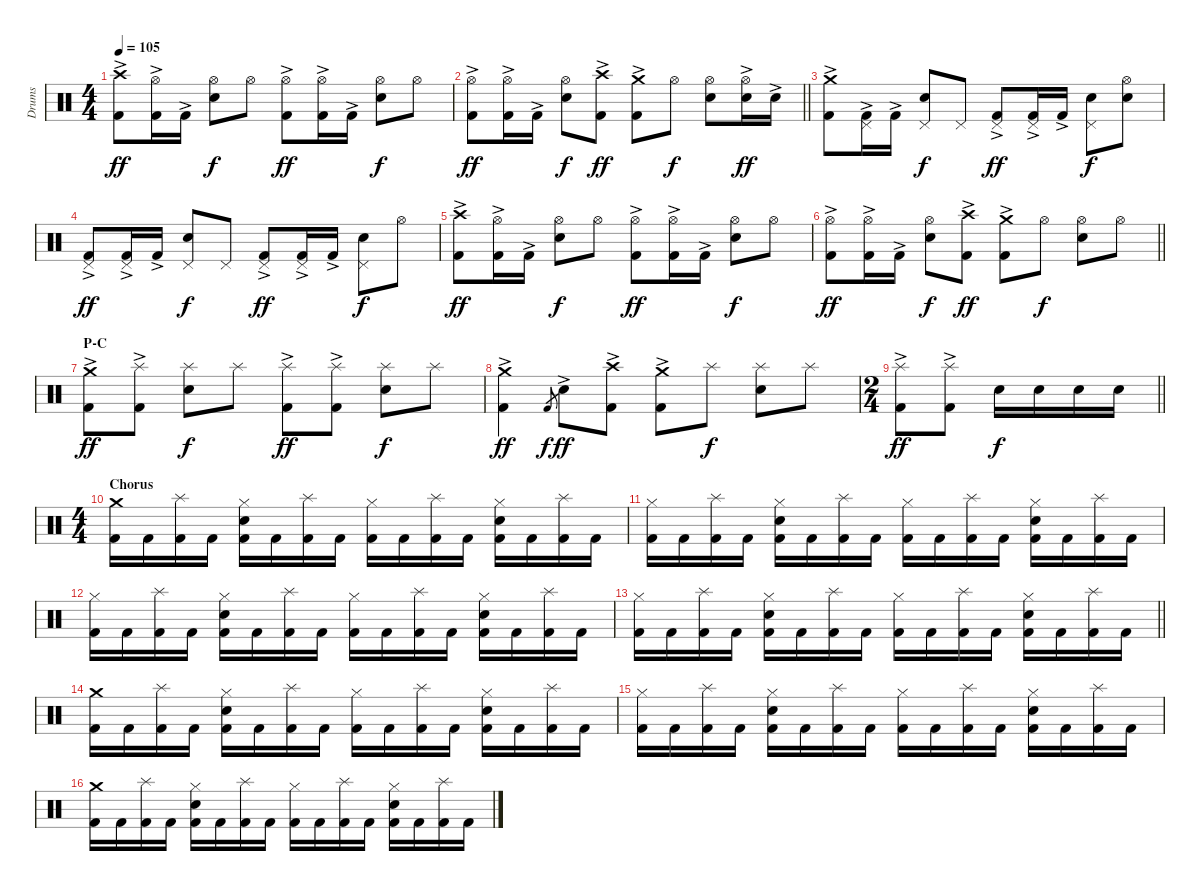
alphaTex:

\track ("Drums" "Drums") {instrument percussion}
\staff {score}
\articulation defaults
\ts (4 4)
\tempo 105
\clef neutral
\ks c
("Kick (hit) 2"{ac} "Crash high (hit)").8{dy ff} ("Kick (hit) 2"{ac} "Hi-Hat (open)").16 "Kick (hit) 2"{ac}.16 ("Snare (hit) 2" "Hi-Hat (open)").8{dy f} "Hi-Hat (open)".8 ("Kick (hit) 2"{ac} "Hi-Hat (open)").8{dy ff} ("Kick (hit) 2"{ac} "Hi-Hat (open)").16 "Kick (hit) 2"{ac}.16 ("Snare (hit) 2" "Hi-Hat (open)").8{dy f} "Hi-Hat (open)".8 |
\barLineRight lightlight
("Kick (hit) 2"{ac} "Hi-Hat (open)").8{dy ff} ("Kick (hit) 2"{ac} "Hi-Hat (open)").16 "Kick (hit) 2"{ac}.16 ("Snare (hit) 2" "Hi-Hat (open)").8{dy f} ("Kick (hit) 2"{ac} "Crash high (hit)").8{dy ff} ("Kick (hit) 2"{ac} "Crash medium (hit)").8 "Hi-Hat (open)".8{dy f} ("Snare (hit) 2" "Hi-Hat (open)").8 ("Snare (hit) 2"{ac} "Hi-Hat (open)").16{dy ff} "Snare (hit) 2"{ac}.16 |
\section ("" "")
("Kick (hit) 2"{ac} "Crash medium (hit)").8 ("Kick (hit) 2"{ac} "Pedal Hi-Hat (hit)").16 "Kick (hit) 2"{ac}.16 ("Snare (hit) 2" "Pedal Hi-Hat (hit)").8{dy f} "Pedal Hi-Hat (hit)".8 ("Kick (hit) 2"{ac} "Pedal Hi-Hat (hit)").8{dy ff} ("Kick (hit) 2"{ac} "Pedal Hi-Hat (hit)").16 "Kick (hit) 2"{ac}.16 ("Snare (hit) 2" "Pedal Hi-Hat (hit)").8{dy f} ("Snare (hit) 2" "Hi-Hat (open)").8 |
("Kick (hit) 2"{ac} "Pedal Hi-Hat (hit)").8{dy ff} ("Kick (hit) 2"{ac} "Pedal Hi-Hat (hit)").16 "Kick (hit) 2"{ac}.16 ("Snare (hit) 2" "Pedal Hi-Hat (hit)").8{dy f} "Pedal Hi-Hat (hit)".8 ("Kick (hit) 2"{ac} "Pedal Hi-Hat (hit)").8{dy ff} ("Kick (hit) 2"{ac} "Pedal Hi-Hat (hit)").16 "Kick (hit) 2"{ac}.16 ("Snare (hit) 2" "Pedal Hi-Hat (hit)").8{dy f} "Hi-Hat (open)".8 |
("Kick (hit) 2"{ac} "Crash high (hit)").8{dy ff} ("Kick (hit) 2"{ac} "Hi-Hat (open)").16 "Kick (hit) 2"{ac}.16 ("Snare (hit) 2" "Hi-Hat (open)").8{dy f} "Hi-Hat (open)".8 ("Kick (hit) 2"{ac} "Hi-Hat (open)").8{dy ff} ("Kick (hit) 2"{ac} "Hi-Hat (open)").16 "Kick (hit) 2"{ac}.16 ("Snare (hit) 2" "Hi-Hat (open)").8{dy f} "Hi-Hat (open)".8 |
\barLineRight lightlight
("Kick (hit) 2"{ac} "Hi-Hat (open)").8{dy ff} ("Kick (hit) 2"{ac} "Hi-Hat (open)").16 "Kick (hit) 2"{ac}.16 ("Snare (hit) 2" "Hi-Hat (open)").8{dy f} ("Kick (hit) 2"{ac} "Crash high (hit)").8{dy ff} ("Kick (hit) 2"{ac} "Crash medium (hit)").8 "Hi-Hat (open)".8{dy f} ("Snare (hit) 2" "Hi-Hat (open)").8 "Hi-Hat (open)".8 |
\section ("" "P-C")
("Kick (hit) 2"{ac} "Crash medium (hit)").8{dy ff} ("Kick (hit) 2"{ac} "Splash (hit)").8 ("Snare (hit) 2" "Splash (hit)").8{dy f} "Splash (hit)".8 ("Kick (hit) 2"{ac} "Splash (hit)").8{dy ff} ("Kick (hit) 2"{ac} "Splash (hit)").8 ("Snare (hit) 2" "Splash (hit)").8{dy f} "Splash (hit)".8 |
("Kick (hit) 2"{ac} "Crash medium (hit)").4{dy ff} "Kick (hit) 2".8{gr dy f} "Snare (hit) 2"{ac}.8{dy ff} ("Kick (hit) 2"{ac} "Crash high (hit)").8 ("Kick (hit) 2"{ac} "Crash medium (hit)").8 "Splash (hit)".8{dy f} ("Snare (hit) 2" "Splash (hit)").8 "Splash (hit)".8 |
\ts (2 4)
\barLineRight lightlight
("Kick (hit) 2"{ac} "Splash (hit)").8{dy ff} ("Kick (hit) 2"{ac} "Splash (hit)").8 "Snare (hit) 2".16{dy f} "Snare (hit) 2".16 "Snare (hit) 2".16 "Snare (hit) 2".16 |
\ts (4 4)
\section ("" "Chorus")
("Kick (hit) 2" "Crash medium (hit)").16 "Kick (hit) 2".16 ("Kick (hit) 2" "Splash (hit)").16 "Kick (hit) 2".16 ("Kick (hit) 2" "Snare (hit) 2" "Hi-Hat (closed)").16 "Kick (hit) 2".16 ("Kick (hit) 2" "Splash (hit)").16 "Kick (hit) 2".16 ("Kick (hit) 2" "Hi-Hat (closed)").16 "Kick (hit) 2".16 ("Kick (hit) 2" "Splash (hit)").16 "Kick (hit) 2".16 ("Kick (hit) 2" "Snare (hit) 2" "Hi-Hat (closed)").16 "Kick (hit) 2".16 ("Kick (hit) 2" "Splash (hit)").16 "Kick (hit) 2".16 |
("Kick (hit) 2" "Hi-Hat (closed)").16 "Kick (hit) 2".16 ("Kick (hit) 2" "Splash (hit)").16 "Kick (hit) 2".16 ("Kick (hit) 2" "Snare (hit) 2" "Hi-Hat (closed)").16 "Kick (hit) 2".16 ("Kick (hit) 2" "Splash (hit)").16 "Kick (hit) 2".16 ("Kick (hit) 2" "Hi-Hat (closed)").16 "Kick (hit) 2".16 ("Kick (hit) 2" "Splash (hit)").16 "Kick (hit) 2".16 ("Kick (hit) 2" "Snare (hit) 2" "Hi-Hat (closed)").16 "Kick (hit) 2".16 ("Kick (hit) 2" "Splash (hit)").16 "Kick (hit) 2".16 |
("Kick (hit) 2" "Hi-Hat (closed)").16 "Kick (hit) 2".16 ("Kick (hit) 2" "Splash (hit)").16 "Kick (hit) 2".16 ("Kick (hit) 2" "Snare (hit) 2" "Hi-Hat (closed)").16 "Kick (hit) 2".16 ("Kick (hit) 2" "Splash (hit)").16 "Kick (hit) 2".16 ("Kick (hit) 2" "Hi-Hat (closed)").16 "Kick (hit) 2".16 ("Kick (hit) 2" "Splash (hit)").16 "Kick (hit) 2".16 ("Kick (hit) 2" "Snare (hit) 2" "Hi-Hat (closed)").16 "Kick (hit) 2".16 ("Kick (hit) 2" "Splash (hit)").16 "Kick (hit) 2".16 |
\barLineRight lightlight
("Kick (hit) 2" "Hi-Hat (closed)").16 "Kick (hit) 2".16 ("Kick (hit) 2" "Splash (hit)").16 "Kick (hit) 2".16 ("Kick (hit) 2" "Snare (hit) 2" "Hi-Hat (closed)").16 "Kick (hit) 2".16 ("Kick (hit) 2" "Splash (hit)").16 "Kick (hit) 2".16 ("Kick (hit) 2" "Hi-Hat (closed)").16 "Kick (hit) 2".16 ("Kick (hit) 2" "Splash (hit)").16 "Kick (hit) 2".16 ("Kick (hit) 2" "Snare (hit) 2" "Hi-Hat (closed)").16 "Kick (hit) 2".16 ("Kick (hit) 2" "Splash (hit)").16 "Kick (hit) 2".16 |
\section ("" "")
("Kick (hit) 2" "Crash medium (hit)").16 "Kick (hit) 2".16 ("Kick (hit) 2" "Splash (hit)").16 "Kick (hit) 2".16 ("Kick (hit) 2" "Snare (hit) 2" "Hi-Hat (closed)").16 "Kick (hit) 2".16 ("Kick (hit) 2" "Splash (hit)").16 "Kick (hit) 2".16 ("Kick (hit) 2" "Hi-Hat (closed)").16 "Kick (hit) 2".16 ("Kick (hit) 2" "Splash (hit)").16 "Kick (hit) 2".16 ("Kick (hit) 2" "Snare (hit) 2" "Hi-Hat (closed)").16 "Kick (hit) 2".16 ("Kick (hit) 2" "Splash (hit)").16 "Kick (hit) 2".16 |
("Kick (hit) 2" "Hi-Hat (closed)").16 "Kick (hit) 2".16 ("Kick (hit) 2" "Splash (hit)").16 "Kick (hit) 2".16 ("Kick (hit) 2" "Snare (hit) 2" "Hi-Hat (closed)").16 "Kick (hit) 2".16 ("Kick (hit) 2" "Splash (hit)").16 "Kick (hit) 2".16 ("Kick (hit) 2" "Hi-Hat (closed)").16 "Kick (hit) 2".16 ("Kick (hit) 2" "Splash (hit)").16 "Kick (hit) 2".16 ("Kick (hit) 2" "Snare (hit) 2" "Hi-Hat (closed)").16 "Kick (hit) 2".16 ("Kick (hit) 2" "Splash (hit)").16 "Kick (hit) 2".16 |
("Kick (hit) 2" "Crash medium (hit)").16 "Kick (hit) 2".16 ("Kick (hit) 2" "Splash (hit)").16 "Kick (hit) 2".16 ("Kick (hit) 2" "Snare (hit) 2" "Hi-Hat (closed)").16 "Kick (hit) 2".16 ("Kick (hit) 2" "Splash (hit)").16 "Kick (hit) 2".16 ("Kick (hit) 2" "Hi-Hat (closed)").16 "Kick (hit) 2".16 ("Kick (hit) 2" "Splash (hit)").16 "Kick (hit) 2".16 ("Kick (hit) 2" "Snare (hit) 2" "Hi-Hat (closed)").16 "Kick (hit) 2".16 ("Kick (hit) 2" "Splash (hit)").16 "Kick (hit) 2".16
